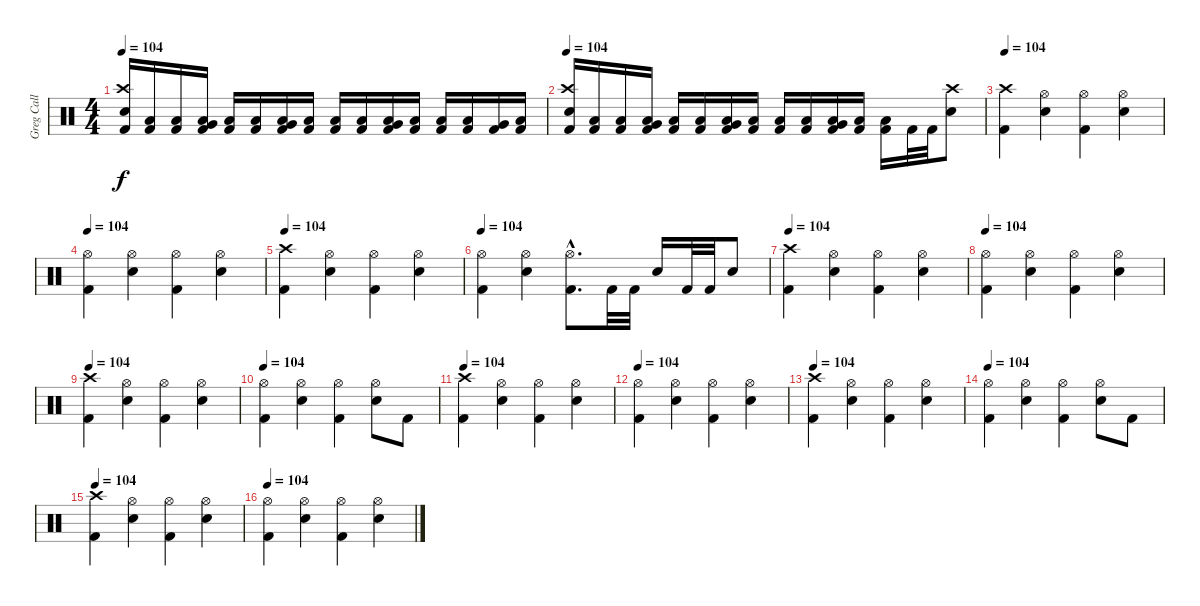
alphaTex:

\track ("Greg Call (Drums)" "Greg Call ") {instrument percussion}
\staff {score}
\articulation defaults
\ts (4 4)
\tempo 104
\clef neutral
\ks c
("Snare (hit) 2" "Crash high (hit)" "Kick (hit) 2").16{dy f} ("Low Floor Tom (hit)" "Kick (hit) 2").16 ("Low Floor Tom (hit)" "Kick (hit) 2").16 ("Low Tom (hit)" "Very Low Tom (hit)" "Kick (hit) 2").16 ("Low Floor Tom (hit)" "Kick (hit) 2").16 ("Low Floor Tom (hit)" "Kick (hit) 2").16 ("Low Floor Tom (hit)" "Very Low Tom (hit)" "Kick (hit) 2").16 ("Low Floor Tom (hit)" "Kick (hit) 2").16 ("Low Floor Tom (hit)" "Kick (hit) 2").16 ("Low Floor Tom (hit)" "Kick (hit) 2").16 ("Low Floor Tom (hit)" "Very Low Tom (hit)" "Kick (hit) 2").16 ("Low Floor Tom (hit)" "Kick (hit) 2").16 ("Low Floor Tom (hit)" "Kick (hit) 2").16 ("Low Tom (hit)" "Kick (hit) 2").16 ("Very Low Tom (hit)" "Kick (hit) 2").16 ("Low Floor Tom (hit)" "Kick (hit) 2").16 |
\tempo 104
("Snare (hit) 2" "Crash high (hit)" "Kick (hit) 2").16 ("Low Floor Tom (hit)" "Kick (hit) 2").16 ("Low Floor Tom (hit)" "Kick (hit) 2").16 ("Low Tom (hit)" "Very Low Tom (hit)" "Kick (hit) 2").16 ("Low Floor Tom (hit)" "Kick (hit) 2").16 ("Low Floor Tom (hit)" "Kick (hit) 2").16 ("Low Floor Tom (hit)" "Very Low Tom (hit)" "Kick (hit) 2").16 ("Low Floor Tom (hit)" "Kick (hit) 2").16 ("Low Floor Tom (hit)" "Kick (hit) 2").16 ("Low Floor Tom (hit)" "Kick (hit) 2").16 ("Low Floor Tom (hit)" "Very Low Tom (hit)" "Kick (hit) 2").16 ("Low Floor Tom (hit)" "Kick (hit) 2").16 ("Low Floor Tom (hit)" "Kick (hit) 2").16 "Kick (hit) 2".32 "Kick (hit) 2".32 ("Crash high (hit)" "Snare (hit) 2").8 |
\tempo 104
("Crash high (hit)" "Kick (hit) 2").4 ("Hi-Hat (open)" "Snare (hit) 2").4 ("Hi-Hat (open)" "Kick (hit) 2").4 ("Hi-Hat (open)" "Snare (hit) 2").4 |
\tempo 104
("Hi-Hat (open)" "Kick (hit) 2").4 ("Hi-Hat (open)" "Snare (hit) 2").4 ("Hi-Hat (open)" "Kick (hit) 2").4 ("Hi-Hat (open)" "Snare (hit) 2").4 |
\tempo 104
("Crash high (hit)" "Kick (hit) 2").4 ("Hi-Hat (open)" "Snare (hit) 2").4 ("Hi-Hat (open)" "Kick (hit) 2").4 ("Hi-Hat (open)" "Snare (hit) 2").4 |
\tempo 104
("Hi-Hat (open)" "Kick (hit) 2").4 ("Hi-Hat (open)" "Snare (hit) 2").4 ("Hi-Hat (open)"{hac} "Kick (hit) 2"{hac}).8{d} "Kick (hit) 2".32 "Kick (hit) 2".32 "Snare (hit) 2".16 "Kick (hit) 2".32 "Kick (hit) 2".32 "Snare (hit) 2".8 |
\tempo 104
("Crash high (hit)" "Kick (hit) 2").4 ("Hi-Hat (open)" "Snare (hit) 2").4 ("Hi-Hat (open)" "Kick (hit) 2").4 ("Hi-Hat (open)" "Snare (hit) 2").4 |
\tempo 104
("Hi-Hat (open)" "Kick (hit) 2").4 ("Hi-Hat (open)" "Snare (hit) 2").4 ("Hi-Hat (open)" "Kick (hit) 2").4 ("Hi-Hat (open)" "Snare (hit) 2").4 |
\tempo 104
("Crash high (hit)" "Kick (hit) 2").4 ("Hi-Hat (open)" "Snare (hit) 2").4 ("Hi-Hat (open)" "Kick (hit) 2").4 ("Hi-Hat (open)" "Snare (hit) 2").4 |
\tempo 104
("Hi-Hat (open)" "Kick (hit) 2").4 ("Hi-Hat (open)" "Snare (hit) 2").4 ("Hi-Hat (open)" "Kick (hit) 2").4 ("Hi-Hat (open)" "Snare (hit) 2").8 "Kick (hit) 2".8 |
\tempo 104
("Crash high (hit)" "Kick (hit) 2").4 ("Hi-Hat (open)" "Snare (hit) 2").4 ("Hi-Hat (open)" "Kick (hit) 2").4 ("Hi-Hat (open)" "Snare (hit) 2").4 |
\tempo 104
("Hi-Hat (open)" "Kick (hit) 2").4 ("Hi-Hat (open)" "Snare (hit) 2").4 ("Hi-Hat (open)" "Kick (hit) 2").4 ("Hi-Hat (open)" "Snare (hit) 2").4 |
\tempo 104
("Crash high (hit)" "Kick (hit) 2").4 ("Hi-Hat (open)" "Snare (hit) 2").4 ("Hi-Hat (open)" "Kick (hit) 2").4 ("Hi-Hat (open)" "Snare (hit) 2").4 |
\tempo 104
("Hi-Hat (open)" "Kick (hit) 2").4 ("Hi-Hat (open)" "Snare (hit) 2").4 ("Hi-Hat (open)" "Kick (hit) 2").4 ("Hi-Hat (open)" "Snare (hit) 2").8 "Kick (hit) 2".8 |
\tempo 104
("Crash high (hit)" "Kick (hit) 2").4 ("Hi-Hat (open)" "Snare (hit) 2").4 ("Hi-Hat (open)" "Kick (hit) 2").4 ("Hi-Hat (open)" "Snare (hit) 2").4 |
\tempo 104
("Hi-Hat (open)" "Kick (hit) 2").4 ("Hi-Hat (open)" "Snare (hit) 2").4 ("Hi-Hat (open)" "Kick (hit) 2").4 ("Hi-Hat (open)" "Snare (hit) 2").4
